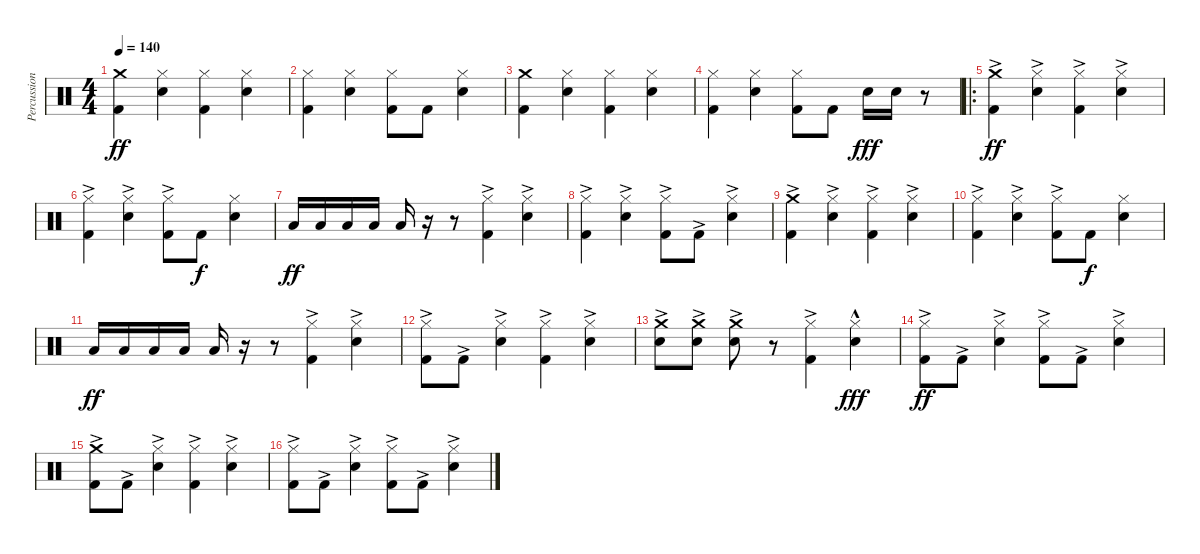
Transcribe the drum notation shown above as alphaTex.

\track ("Percussion" "Percussion") {instrument percussion}
\staff {score}
\articulation defaults
\ts (4 4)
\tempo 140
\clef neutral
\ks c
("Crash medium (hit)" "Kick (hit) 2").4{dy ff} ("Hi-Hat (closed)" "Snare (hit) 2").4 ("Hi-Hat (closed)" "Kick (hit) 2").4 ("Hi-Hat (closed)" "Snare (hit) 2").4 |
("Hi-Hat (closed)" "Kick (hit) 2").4 ("Hi-Hat (closed)" "Snare (hit) 2").4 ("Hi-Hat (closed)" "Kick (hit) 2").8 "Kick (hit) 2".8 ("Hi-Hat (closed)" "Snare (hit) 2").4 |
("Crash medium (hit)" "Kick (hit) 2").4 ("Hi-Hat (closed)" "Snare (hit) 2").4 ("Hi-Hat (closed)" "Kick (hit) 2").4 ("Hi-Hat (closed)" "Snare (hit) 2").4 |
("Hi-Hat (closed)" "Kick (hit) 2").4 ("Hi-Hat (closed)" "Snare (hit) 2").4 ("Hi-Hat (closed)" "Kick (hit) 2").8 "Kick (hit) 2".8 "Snare (hit) 2".16{dy fff} "Snare (hit) 2".16 r.8 |
\ro
("Crash medium (hit)" "Kick (hit) 2"{ac}).4{dy ff} ("Hi-Hat (closed)" "Snare (hit) 2"{ac}).4 ("Hi-Hat (closed)" "Kick (hit) 2"{ac}).4 ("Hi-Hat (closed)" "Snare (hit) 2"{ac}).4 |
("Hi-Hat (closed)" "Kick (hit) 2"{ac}).4 ("Hi-Hat (closed)" "Snare (hit) 2"{ac}).4 ("Hi-Hat (closed)" "Kick (hit) 2"{ac}).8 "Kick (hit) 2".8{dy f} ("Hi-Hat (closed)" "Snare (hit) 2").4 |
"Low Floor Tom (hit)".16{dy ff} "Low Floor Tom (hit)".16 "Low Floor Tom (hit)".16 "Low Floor Tom (hit)".16 "Low Floor Tom (hit)".16 r.16 r.8 ("Hi-Hat (closed)" "Kick (hit) 2"{ac}).4 ("Hi-Hat (closed)" "Snare (hit) 2"{ac}).4 |
("Hi-Hat (closed)" "Kick (hit) 2"{ac}).4 ("Hi-Hat (closed)" "Snare (hit) 2"{ac}).4 ("Hi-Hat (closed)" "Kick (hit) 2"{ac}).8 "Kick (hit) 2"{ac}.8 ("Hi-Hat (closed)" "Snare (hit) 2"{ac}).4 |
("Crash medium (hit)" "Kick (hit) 2"{ac}).4 ("Hi-Hat (closed)" "Snare (hit) 2"{ac}).4 ("Hi-Hat (closed)" "Kick (hit) 2"{ac}).4 ("Hi-Hat (closed)" "Snare (hit) 2"{ac}).4 |
("Hi-Hat (closed)" "Kick (hit) 2"{ac}).4 ("Hi-Hat (closed)" "Snare (hit) 2"{ac}).4 ("Hi-Hat (closed)" "Kick (hit) 2"{ac}).8 "Kick (hit) 2".8{dy f} ("Hi-Hat (closed)" "Snare (hit) 2").4 |
"Low Floor Tom (hit)".16{dy ff} "Low Floor Tom (hit)".16 "Low Floor Tom (hit)".16 "Low Floor Tom (hit)".16 "Low Floor Tom (hit)".16 r.16 r.8 ("Hi-Hat (closed)" "Kick (hit) 2"{ac}).4 ("Hi-Hat (closed)" "Snare (hit) 2"{ac}).4 |
("Hi-Hat (closed)" "Kick (hit) 2"{ac}).8 "Kick (hit) 2"{ac}.8 ("Hi-Hat (closed)" "Snare (hit) 2"{ac}).4 ("Hi-Hat (closed)" "Kick (hit) 2"{ac}).4 ("Hi-Hat (closed)" "Snare (hit) 2"{ac}).4 |
("Crash medium (hit)" "Snare (hit) 2"{ac}).8 ("Crash medium (hit)" "Snare (hit) 2"{ac}).8 ("Crash medium (hit)" "Snare (hit) 2"{ac}).8 r.8 ("Hi-Hat (closed)" "Kick (hit) 2"{ac}).4 ("Hi-Hat (closed)" "Snare (hit) 2"{hac}).4{dy fff} |
("Hi-Hat (closed)" "Kick (hit) 2"{ac}).8{dy ff} "Kick (hit) 2"{ac}.8 ("Hi-Hat (closed)" "Snare (hit) 2"{ac}).4 ("Hi-Hat (closed)" "Kick (hit) 2"{ac}).8 "Kick (hit) 2"{ac}.8 ("Hi-Hat (closed)" "Snare (hit) 2"{ac}).4 |
("Crash medium (hit)" "Kick (hit) 2"{ac}).8 "Kick (hit) 2"{ac}.8 ("Hi-Hat (closed)" "Snare (hit) 2"{ac}).4 ("Hi-Hat (closed)" "Kick (hit) 2"{ac}).4 ("Hi-Hat (closed)" "Snare (hit) 2"{ac}).4 |
("Hi-Hat (closed)" "Kick (hit) 2"{ac}).8 "Kick (hit) 2"{ac}.8 ("Hi-Hat (closed)" "Snare (hit) 2"{ac}).4 ("Hi-Hat (closed)" "Kick (hit) 2"{ac}).8 "Kick (hit) 2"{ac}.8 ("Hi-Hat (closed)" "Snare (hit) 2"{ac}).4
